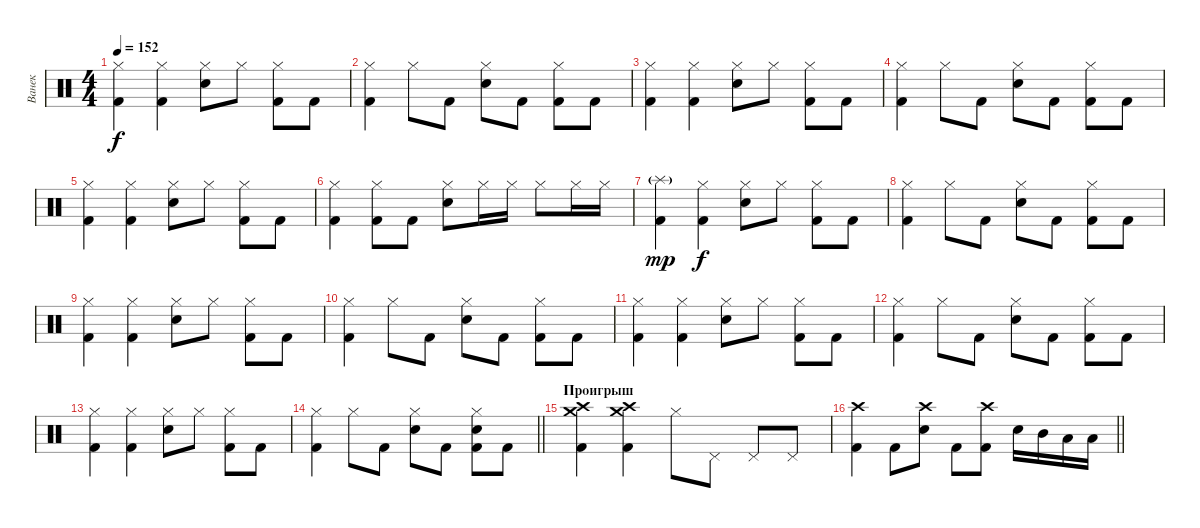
\track ("Ванек" "Ванек") {instrument percussion}
\staff {score}
\articulation defaults
\ts (4 4)
\tempo 152
\clef neutral
\ks c
("Hi-Hat (closed)" "Kick (hit) 2").4{dy f} ("Hi-Hat (closed)" "Kick (hit) 2").4 ("Hi-Hat (closed)" "Electric Snare (hit)").8 "Hi-Hat (closed)".8 ("Hi-Hat (closed)" "Kick (hit) 2").8 "Kick (hit) 2".8 |
("Hi-Hat (closed)" "Kick (hit) 2").4 "Hi-Hat (closed)".8 "Kick (hit) 2".8 ("Hi-Hat (closed)" "Electric Snare (hit)").8 "Kick (hit) 2".8 ("Hi-Hat (closed)" "Kick (hit) 2").8 "Kick (hit) 2".8 |
("Hi-Hat (closed)" "Kick (hit) 2").4 ("Hi-Hat (closed)" "Kick (hit) 2").4 ("Hi-Hat (closed)" "Electric Snare (hit)").8 "Hi-Hat (closed)".8 ("Hi-Hat (closed)" "Kick (hit) 2").8 "Kick (hit) 2".8 |
("Hi-Hat (closed)" "Kick (hit) 2").4 "Hi-Hat (closed)".8 "Kick (hit) 2".8 ("Hi-Hat (closed)" "Electric Snare (hit)").8 "Kick (hit) 2".8 ("Hi-Hat (closed)" "Kick (hit) 2").8 "Kick (hit) 2".8 |
("Hi-Hat (closed)" "Kick (hit) 2").4 ("Hi-Hat (closed)" "Kick (hit) 2").4 ("Hi-Hat (closed)" "Electric Snare (hit)").8 "Hi-Hat (closed)".8 ("Hi-Hat (closed)" "Kick (hit) 2").8 "Kick (hit) 2".8 |
("Hi-Hat (closed)" "Kick (hit) 2").4 ("Hi-Hat (closed)" "Kick (hit) 2").8 "Kick (hit) 2".8 ("Hi-Hat (closed)" "Electric Snare (hit)").8 "Hi-Hat (closed)".16 "Hi-Hat (closed)".16 "Hi-Hat (closed)".8 "Hi-Hat (closed)".16 "Hi-Hat (closed)".16 |
("Splash (hit)"{g} "Kick (hit) 2").4{dy mp} ("Hi-Hat (closed)" "Kick (hit) 2").4{dy f} ("Hi-Hat (closed)" "Electric Snare (hit)").8 "Hi-Hat (closed)".8 ("Hi-Hat (closed)" "Kick (hit) 2").8 "Kick (hit) 2".8 |
("Hi-Hat (closed)" "Kick (hit) 2").4 "Hi-Hat (closed)".8 "Kick (hit) 2".8 ("Hi-Hat (closed)" "Electric Snare (hit)").8 "Kick (hit) 2".8 ("Hi-Hat (closed)" "Kick (hit) 2").8 "Kick (hit) 2".8 |
("Hi-Hat (closed)" "Kick (hit) 2").4 ("Hi-Hat (closed)" "Kick (hit) 2").4 ("Hi-Hat (closed)" "Electric Snare (hit)").8 "Hi-Hat (closed)".8 ("Hi-Hat (closed)" "Kick (hit) 2").8 "Kick (hit) 2".8 |
("Hi-Hat (closed)" "Kick (hit) 2").4 "Hi-Hat (closed)".8 "Kick (hit) 2".8 ("Hi-Hat (closed)" "Electric Snare (hit)").8 "Kick (hit) 2".8 ("Hi-Hat (closed)" "Kick (hit) 2").8 "Kick (hit) 2".8 |
("Hi-Hat (closed)" "Kick (hit) 2").4 ("Hi-Hat (closed)" "Kick (hit) 2").4 ("Hi-Hat (closed)" "Electric Snare (hit)").8 "Hi-Hat (closed)".8 ("Hi-Hat (closed)" "Kick (hit) 2").8 "Kick (hit) 2".8 |
("Hi-Hat (closed)" "Kick (hit) 2").4 "Hi-Hat (closed)".8 "Kick (hit) 2".8 ("Hi-Hat (closed)" "Electric Snare (hit)").8 "Kick (hit) 2".8 ("Hi-Hat (closed)" "Kick (hit) 2").8 "Kick (hit) 2".8 |
("Hi-Hat (closed)" "Kick (hit) 2").4 ("Hi-Hat (closed)" "Kick (hit) 2").4 ("Hi-Hat (closed)" "Electric Snare (hit)").8 "Hi-Hat (closed)".8 ("Hi-Hat (closed)" "Kick (hit) 2").8 "Kick (hit) 2".8 |
\barLineRight lightlight
("Hi-Hat (closed)" "Kick (hit) 2").4 "Hi-Hat (closed)".8 "Kick (hit) 2".8 ("Hi-Hat (closed)" "Electric Snare (hit)").8 "Kick (hit) 2".8 ("Hi-Hat (closed)" "Electric Snare (hit)" "Kick (hit) 2").8 "Kick (hit) 2".8 |
\section ("" "Проигрыш ")
("Crash high (hit)" "Crash medium (hit)" "Kick (hit) 2").4 ("Crash high (hit)" "Crash medium (hit)" "Kick (hit) 2").4 "Hi-Hat (closed)".8 "Pedal Hi-Hat (hit)".8 "Pedal Hi-Hat (hit)".8 "Pedal Hi-Hat (hit)".8 |
\barLineRight lightlight
("Crash high (hit)" "Kick (hit) 2").4 "Kick (hit) 2".8 ("Crash high (hit)" "Electric Snare (hit)").8 "Kick (hit) 2".8 ("Crash high (hit)" "Kick (hit) 2").8 "Electric Snare (hit)".16 "Mid Tom (hit)".16 "Low Tom (hit)".16 "Low Floor Tom (hit)".16
